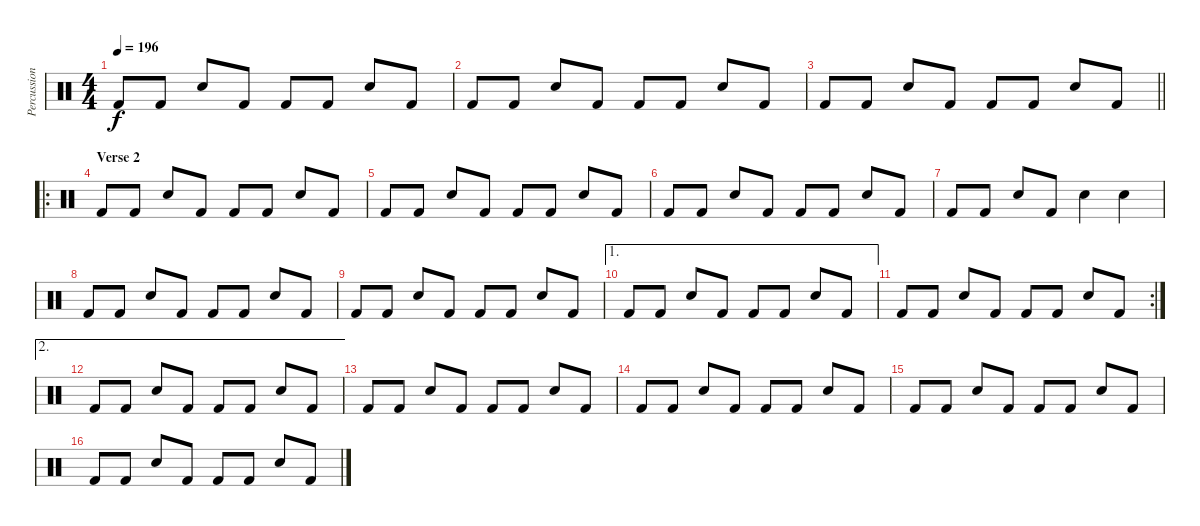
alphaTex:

\track ("Percussion" "Percussion") {instrument percussion}
\staff {score}
\articulation defaults
\ts (4 4)
\tempo 196
\clef neutral
\ks c "Kick (hit) 2".8{dy f} "Kick (hit) 2".8 "Electric Snare (hit)".8 "Kick (hit) 2".8 "Kick (hit) 2".8 "Kick (hit) 2".8 "Electric Snare (hit)".8 "Kick (hit) 2".8
|
"Kick (hit) 2".8 "Kick (hit) 2".8 "Electric Snare (hit)".8 "Kick (hit) 2".8 "Kick (hit) 2".8 "Kick (hit) 2".8 "Electric Snare (hit)".8 "Kick (hit) 2".8 |
\barLineRight lightlight "Kick (hit) 2".8 "Kick (hit) 2".8 "Electric Snare (hit)".8 "Kick (hit) 2".8 "Kick (hit) 2".8 "Kick (hit) 2".8 "Electric Snare (hit)".8 "Kick (hit) 2".8
|
\ro
\section ("" "Verse 2")
"Kick (hit) 2".8 "Kick (hit) 2".8 "Electric Snare (hit)".8 "Kick (hit) 2".8 "Kick (hit) 2".8 "Kick (hit) 2".8 "Electric Snare (hit)".8 "Kick (hit) 2".8 |
"Kick (hit) 2".8 "Kick (hit) 2".8 "Electric Snare (hit)".8 "Kick (hit) 2".8 "Kick (hit) 2".8 "Kick (hit) 2".8 "Electric Snare (hit)".8 "Kick (hit) 2".8 |
"Kick (hit) 2".8 "Kick (hit) 2".8 "Electric Snare (hit)".8 "Kick (hit) 2".8 "Kick (hit) 2".8 "Kick (hit) 2".8 "Electric Snare (hit)".8 "Kick (hit) 2".8 |
"Kick (hit) 2".8 "Kick (hit) 2".8 "Electric Snare (hit)".8 "Kick (hit) 2".8 "Electric Snare (hit)".4 "Electric Snare (hit)".4 |
"Kick (hit) 2".8 "Kick (hit) 2".8 "Electric Snare (hit)".8 "Kick (hit) 2".8 "Kick (hit) 2".8 "Kick (hit) 2".8 "Electric Snare (hit)".8 "Kick (hit) 2".8 |
"Kick (hit) 2".8 "Kick (hit) 2".8 "Electric Snare (hit)".8 "Kick (hit) 2".8 "Kick (hit) 2".8 "Kick (hit) 2".8 "Electric Snare (hit)".8 "Kick (hit) 2".8 |
\ae 1 "Kick (hit) 2".8 "Kick (hit) 2".8 "Electric Snare (hit)".8 "Kick (hit) 2".8 "Kick (hit) 2".8 "Kick (hit) 2".8 "Electric Snare (hit)".8 "Kick (hit) 2".8
|
\rc 2 "Kick (hit) 2".8 "Kick (hit) 2".8 "Electric Snare (hit)".8 "Kick (hit) 2".8 "Kick (hit) 2".8 "Kick (hit) 2".8 "Electric Snare (hit)".8 "Kick (hit) 2".8
|
\ae 2 "Kick (hit) 2".8 "Kick (hit) 2".8 "Electric Snare (hit)".8 "Kick (hit) 2".8 "Kick (hit) 2".8 "Kick (hit) 2".8 "Electric Snare (hit)".8 "Kick (hit) 2".8
|
"Kick (hit) 2".8 "Kick (hit) 2".8 "Electric Snare (hit)".8 "Kick (hit) 2".8 "Kick (hit) 2".8 "Kick (hit) 2".8 "Electric Snare (hit)".8 "Kick (hit) 2".8 |
"Kick (hit) 2".8 "Kick (hit) 2".8 "Electric Snare (hit)".8 "Kick (hit) 2".8 "Kick (hit) 2".8 "Kick (hit) 2".8 "Electric Snare (hit)".8 "Kick (hit) 2".8 |
"Kick (hit) 2".8 "Kick (hit) 2".8 "Electric Snare (hit)".8 "Kick (hit) 2".8 "Kick (hit) 2".8 "Kick (hit) 2".8 "Electric Snare (hit)".8 "Kick (hit) 2".8 |
"Kick (hit) 2".8 "Kick (hit) 2".8 "Electric Snare (hit)".8 "Kick (hit) 2".8 "Kick (hit) 2".8 "Kick (hit) 2".8 "Electric Snare (hit)".8 "Kick (hit) 2".8
